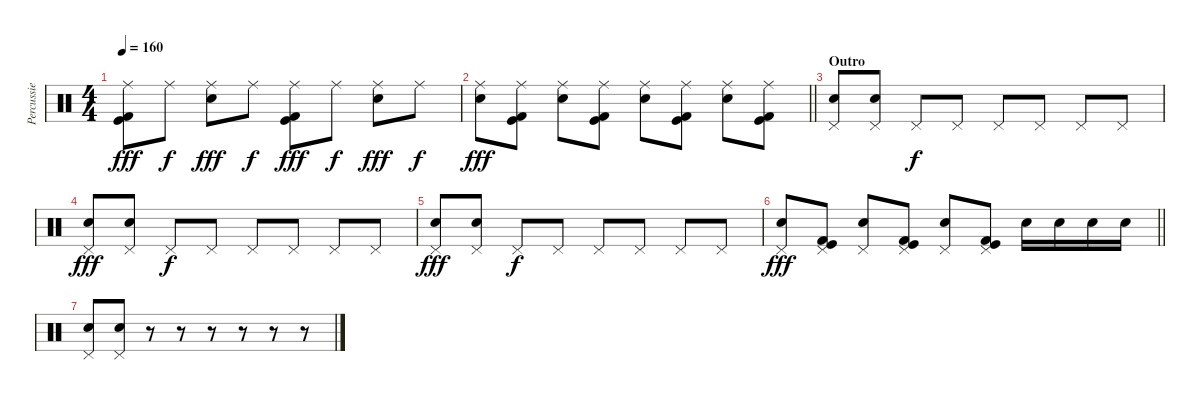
\track ("Percussie" "Percussie") {instrument percussion}
\staff {score}
\articulation defaults
\ts (4 4)
\tempo 160
\clef neutral
\ks c
("Ride (middle)" "Kick (hit)" "Kick (hit) 2").8{dy fff} "Ride (middle)".8{dy f} ("Ride (middle)" "Snare (hit) 2").8{dy fff} "Ride (middle)".8{dy f} ("Ride (middle)" "Kick (hit)" "Kick (hit) 2").8{dy fff} "Ride (middle)".8{dy f} ("Ride (middle)" "Snare (hit) 2").8{dy fff} "Ride (middle)".8{dy f} |
\barLineRight lightlight
("Ride (middle)" "Snare (hit) 2").8{dy fff} ("Ride (middle)" "Kick (hit)" "Kick (hit) 2").8 ("Ride (middle)" "Snare (hit) 2").8 ("Ride (middle)" "Kick (hit)" "Kick (hit) 2").8 ("Ride (middle)" "Snare (hit) 2").8 ("Ride (middle)" "Kick (hit)" "Kick (hit) 2").8 ("Ride (middle)" "Snare (hit) 2").8 ("Ride (middle)" "Kick (hit)" "Kick (hit) 2").8 |
\section ("" "Outro")
("Pedal Hi-Hat (hit)" "Snare (hit) 2").8 ("Pedal Hi-Hat (hit)" "Snare (hit) 2").8 "Pedal Hi-Hat (hit)".8{dy f} "Pedal Hi-Hat (hit)".8 "Pedal Hi-Hat (hit)".8 "Pedal Hi-Hat (hit)".8 "Pedal Hi-Hat (hit)".8 "Pedal Hi-Hat (hit)".8 |
("Pedal Hi-Hat (hit)" "Snare (hit) 2").8{dy fff} ("Pedal Hi-Hat (hit)" "Snare (hit) 2").8 "Pedal Hi-Hat (hit)".8{dy f} "Pedal Hi-Hat (hit)".8 "Pedal Hi-Hat (hit)".8 "Pedal Hi-Hat (hit)".8 "Pedal Hi-Hat (hit)".8 "Pedal Hi-Hat (hit)".8 |
("Pedal Hi-Hat (hit)" "Snare (hit) 2").8{dy fff} ("Pedal Hi-Hat (hit)" "Snare (hit) 2").8 "Pedal Hi-Hat (hit)".8{dy f} "Pedal Hi-Hat (hit)".8 "Pedal Hi-Hat (hit)".8 "Pedal Hi-Hat (hit)".8 "Pedal Hi-Hat (hit)".8 "Pedal Hi-Hat (hit)".8 |
\barLineRight lightlight
("Pedal Hi-Hat (hit)" "Snare (hit) 2").8{dy fff} ("Pedal Hi-Hat (hit)" "Kick (hit)" "Kick (hit) 2").8 ("Pedal Hi-Hat (hit)" "Snare (hit) 2").8 ("Pedal Hi-Hat (hit)" "Kick (hit)" "Kick (hit) 2").8 ("Pedal Hi-Hat (hit)" "Snare (hit) 2").8 ("Pedal Hi-Hat (hit)" "Kick (hit)" "Kick (hit) 2").8 "Snare (hit) 2".16 "Snare (hit) 2".16 "Snare (hit) 2".16 "Snare (hit) 2".16 |
("Pedal Hi-Hat (hit)" "Snare (hit) 2").8 ("Pedal Hi-Hat (hit)" "Snare (hit) 2").8 r.8 r.8 r.8 r.8 r.8 r.8
